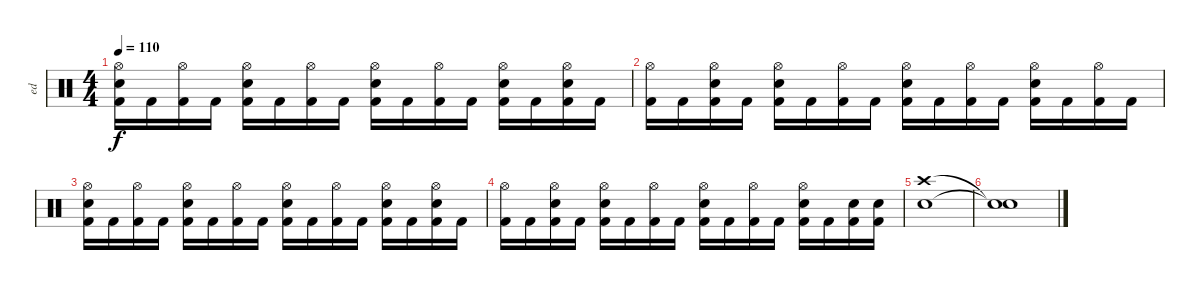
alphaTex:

\track ("ed" "ed") {instrument percussion}
\staff {score}
\articulation defaults
\ts (4 4)
\tempo 110
\clef neutral
\ks c
("Hi-Hat (open)" "Electric Snare (hit)" "Kick (hit) 2").16{dy f} "Kick (hit) 2".16 ("Hi-Hat (open)" "Kick (hit) 2").16 "Kick (hit) 2".16 ("Hi-Hat (open)" "Electric Snare (hit)" "Kick (hit) 2").16 "Kick (hit) 2".16 ("Hi-Hat (open)" "Kick (hit) 2").16 "Kick (hit) 2".16 ("Hi-Hat (open)" "Electric Snare (hit)" "Kick (hit) 2").16 "Kick (hit) 2".16 ("Hi-Hat (open)" "Kick (hit) 2").16 "Kick (hit) 2".16 ("Hi-Hat (open)" "Electric Snare (hit)" "Kick (hit) 2").16 "Kick (hit) 2".16 ("Hi-Hat (open)" "Electric Snare (hit)" "Kick (hit) 2").16 "Kick (hit) 2".16 |
("Hi-Hat (open)" "Kick (hit) 2").16 "Kick (hit) 2".16 ("Hi-Hat (open)" "Electric Snare (hit)" "Kick (hit) 2").16 "Kick (hit) 2".16 ("Hi-Hat (open)" "Electric Snare (hit)" "Kick (hit) 2").16 "Kick (hit) 2".16 ("Hi-Hat (open)" "Kick (hit) 2").16 "Kick (hit) 2".16 ("Hi-Hat (open)" "Electric Snare (hit)" "Kick (hit) 2").16 "Kick (hit) 2".16 ("Hi-Hat (open)" "Kick (hit) 2").16 "Kick (hit) 2".16 ("Hi-Hat (open)" "Electric Snare (hit)" "Kick (hit) 2").16 "Kick (hit) 2".16 ("Hi-Hat (open)" "Kick (hit) 2").16 "Kick (hit) 2".16 |
("Hi-Hat (open)" "Electric Snare (hit)" "Kick (hit) 2").16 "Kick (hit) 2".16 ("Hi-Hat (open)" "Kick (hit) 2").16 "Kick (hit) 2".16 ("Hi-Hat (open)" "Electric Snare (hit)" "Kick (hit) 2").16 "Kick (hit) 2".16 ("Hi-Hat (open)" "Kick (hit) 2").16 "Kick (hit) 2".16 ("Hi-Hat (open)" "Electric Snare (hit)" "Kick (hit) 2").16 "Kick (hit) 2".16 ("Hi-Hat (open)" "Kick (hit) 2").16 "Kick (hit) 2".16 ("Hi-Hat (open)" "Electric Snare (hit)" "Kick (hit) 2").16 "Kick (hit) 2".16 ("Hi-Hat (open)" "Electric Snare (hit)" "Kick (hit) 2").16 "Kick (hit) 2".16 |
("Hi-Hat (open)" "Kick (hit) 2").16 "Kick (hit) 2".16 ("Hi-Hat (open)" "Electric Snare (hit)" "Kick (hit) 2").16 "Kick (hit) 2".16 ("Hi-Hat (open)" "Electric Snare (hit)" "Kick (hit) 2").16 "Kick (hit) 2".16 ("Hi-Hat (open)" "Kick (hit) 2").16 "Kick (hit) 2".16 ("Hi-Hat (open)" "Electric Snare (hit)" "Kick (hit) 2").16 "Kick (hit) 2".16 ("Hi-Hat (open)" "Kick (hit) 2").16 "Kick (hit) 2".16 ("Hi-Hat (open)" "Electric Snare (hit)" "Kick (hit) 2").16 "Kick (hit) 2".16 ("Electric Snare (hit)" "Kick (hit) 2").16 ("Electric Snare (hit)" "Kick (hit) 2").16 |
("Crash high (hit)" "Electric Snare (hit)").1 |
("Snare (hit)"{t} "Snare (hit)"{t}).1
